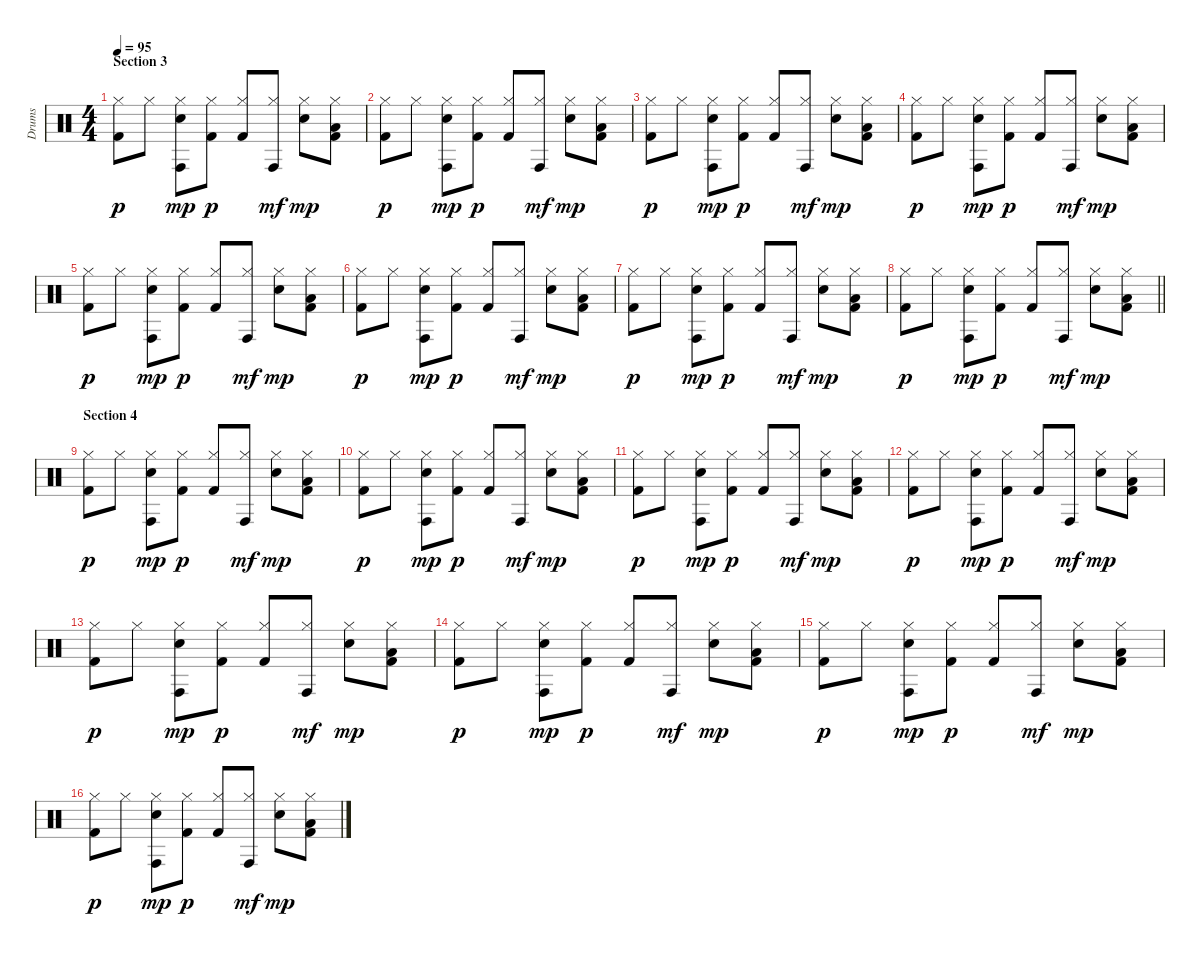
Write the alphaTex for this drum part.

\track ("Drums" "Drums") {instrument percussion}
\staff {score}
\articulation defaults
\ts (4 4)
\section ("" "Section 3")
\tempo 95
\clef neutral
\ks c
("Hi-Hat (closed)" "Kick (hit) 2").8{dy p} "Hi-Hat (closed)".8 ("Hi-Hat (closed)" "Conga high (hit)" "Electric Snare (hit)").8{dy mp} ("Hi-Hat (closed)" "Kick (hit) 2").8{dy p} ("Hi-Hat (closed)" "Kick (hit) 2").8 ("Hi-Hat (closed)" "Conga high (hit)").8{dy mf} ("Hi-Hat (closed)" "Electric Snare (hit)").8{dy mp} ("Hi-Hat (closed)" "Low Tom (hit)" "Kick (hit) 2").8 |
("Hi-Hat (closed)" "Kick (hit) 2").8{dy p} "Hi-Hat (closed)".8 ("Hi-Hat (closed)" "Conga high (hit)" "Electric Snare (hit)").8{dy mp} ("Hi-Hat (closed)" "Kick (hit) 2").8{dy p} ("Hi-Hat (closed)" "Kick (hit) 2").8 ("Hi-Hat (closed)" "Conga high (hit)").8{dy mf} ("Hi-Hat (closed)" "Electric Snare (hit)").8{dy mp} ("Hi-Hat (closed)" "Low Tom (hit)" "Kick (hit) 2").8 |
("Hi-Hat (closed)" "Kick (hit) 2").8{dy p} "Hi-Hat (closed)".8 ("Hi-Hat (closed)" "Conga high (hit)" "Electric Snare (hit)").8{dy mp} ("Hi-Hat (closed)" "Kick (hit) 2").8{dy p} ("Hi-Hat (closed)" "Kick (hit) 2").8 ("Hi-Hat (closed)" "Conga high (hit)").8{dy mf} ("Hi-Hat (closed)" "Electric Snare (hit)").8{dy mp} ("Hi-Hat (closed)" "Low Tom (hit)" "Kick (hit) 2").8 |
("Hi-Hat (closed)" "Kick (hit) 2").8{dy p} "Hi-Hat (closed)".8 ("Hi-Hat (closed)" "Conga high (hit)" "Electric Snare (hit)").8{dy mp} ("Hi-Hat (closed)" "Kick (hit) 2").8{dy p} ("Hi-Hat (closed)" "Kick (hit) 2").8 ("Hi-Hat (closed)" "Conga high (hit)").8{dy mf} ("Hi-Hat (closed)" "Electric Snare (hit)").8{dy mp} ("Hi-Hat (closed)" "Low Tom (hit)" "Kick (hit) 2").8 |
("Hi-Hat (closed)" "Kick (hit) 2").8{dy p} "Hi-Hat (closed)".8 ("Hi-Hat (closed)" "Conga high (hit)" "Electric Snare (hit)").8{dy mp} ("Hi-Hat (closed)" "Kick (hit) 2").8{dy p} ("Hi-Hat (closed)" "Kick (hit) 2").8 ("Hi-Hat (closed)" "Conga high (hit)").8{dy mf} ("Hi-Hat (closed)" "Electric Snare (hit)").8{dy mp} ("Hi-Hat (closed)" "Low Tom (hit)" "Kick (hit) 2").8 |
("Hi-Hat (closed)" "Kick (hit) 2").8{dy p} "Hi-Hat (closed)".8 ("Hi-Hat (closed)" "Conga high (hit)" "Electric Snare (hit)").8{dy mp} ("Hi-Hat (closed)" "Kick (hit) 2").8{dy p} ("Hi-Hat (closed)" "Kick (hit) 2").8 ("Hi-Hat (closed)" "Conga high (hit)").8{dy mf} ("Hi-Hat (closed)" "Electric Snare (hit)").8{dy mp} ("Hi-Hat (closed)" "Low Tom (hit)" "Kick (hit) 2").8 |
("Hi-Hat (closed)" "Kick (hit) 2").8{dy p} "Hi-Hat (closed)".8 ("Hi-Hat (closed)" "Conga high (hit)" "Electric Snare (hit)").8{dy mp} ("Hi-Hat (closed)" "Kick (hit) 2").8{dy p} ("Hi-Hat (closed)" "Kick (hit) 2").8 ("Hi-Hat (closed)" "Conga high (hit)").8{dy mf} ("Hi-Hat (closed)" "Electric Snare (hit)").8{dy mp} ("Hi-Hat (closed)" "Low Tom (hit)" "Kick (hit) 2").8 |
\barLineRight lightlight
("Hi-Hat (closed)" "Kick (hit) 2").8{dy p} "Hi-Hat (closed)".8 ("Hi-Hat (closed)" "Conga high (hit)" "Electric Snare (hit)").8{dy mp} ("Hi-Hat (closed)" "Kick (hit) 2").8{dy p} ("Hi-Hat (closed)" "Kick (hit) 2").8 ("Hi-Hat (closed)" "Conga high (hit)").8{dy mf} ("Hi-Hat (closed)" "Electric Snare (hit)").8{dy mp} ("Hi-Hat (closed)" "Low Tom (hit)" "Kick (hit) 2").8 |
\section ("" "Section 4")
("Hi-Hat (closed)" "Kick (hit) 2").8{dy p} "Hi-Hat (closed)".8 ("Hi-Hat (closed)" "Conga high (hit)" "Electric Snare (hit)").8{dy mp} ("Hi-Hat (closed)" "Kick (hit) 2").8{dy p} ("Hi-Hat (closed)" "Kick (hit) 2").8 ("Hi-Hat (closed)" "Conga high (hit)").8{dy mf} ("Hi-Hat (closed)" "Electric Snare (hit)").8{dy mp} ("Hi-Hat (closed)" "Low Tom (hit)" "Kick (hit) 2").8 |
("Hi-Hat (closed)" "Kick (hit) 2").8{dy p} "Hi-Hat (closed)".8 ("Hi-Hat (closed)" "Conga high (hit)" "Electric Snare (hit)").8{dy mp} ("Hi-Hat (closed)" "Kick (hit) 2").8{dy p} ("Hi-Hat (closed)" "Kick (hit) 2").8 ("Hi-Hat (closed)" "Conga high (hit)").8{dy mf} ("Hi-Hat (closed)" "Electric Snare (hit)").8{dy mp} ("Hi-Hat (closed)" "Low Tom (hit)" "Kick (hit) 2").8 |
("Hi-Hat (closed)" "Kick (hit) 2").8{dy p} "Hi-Hat (closed)".8 ("Hi-Hat (closed)" "Conga high (hit)" "Electric Snare (hit)").8{dy mp} ("Hi-Hat (closed)" "Kick (hit) 2").8{dy p} ("Hi-Hat (closed)" "Kick (hit) 2").8 ("Hi-Hat (closed)" "Conga high (hit)").8{dy mf} ("Hi-Hat (closed)" "Electric Snare (hit)").8{dy mp} ("Hi-Hat (closed)" "Low Tom (hit)" "Kick (hit) 2").8 |
("Hi-Hat (closed)" "Kick (hit) 2").8{dy p} "Hi-Hat (closed)".8 ("Hi-Hat (closed)" "Conga high (hit)" "Electric Snare (hit)").8{dy mp} ("Hi-Hat (closed)" "Kick (hit) 2").8{dy p} ("Hi-Hat (closed)" "Kick (hit) 2").8 ("Hi-Hat (closed)" "Conga high (hit)").8{dy mf} ("Hi-Hat (closed)" "Electric Snare (hit)").8{dy mp} ("Hi-Hat (closed)" "Low Tom (hit)" "Kick (hit) 2").8 |
("Hi-Hat (closed)" "Kick (hit) 2").8{dy p} "Hi-Hat (closed)".8 ("Hi-Hat (closed)" "Conga high (hit)" "Electric Snare (hit)").8{dy mp} ("Hi-Hat (closed)" "Kick (hit) 2").8{dy p} ("Hi-Hat (closed)" "Kick (hit) 2").8 ("Hi-Hat (closed)" "Conga high (hit)").8{dy mf} ("Hi-Hat (closed)" "Electric Snare (hit)").8{dy mp} ("Hi-Hat (closed)" "Low Tom (hit)" "Kick (hit) 2").8 |
("Hi-Hat (closed)" "Kick (hit) 2").8{dy p} "Hi-Hat (closed)".8 ("Hi-Hat (closed)" "Conga high (hit)" "Electric Snare (hit)").8{dy mp} ("Hi-Hat (closed)" "Kick (hit) 2").8{dy p} ("Hi-Hat (closed)" "Kick (hit) 2").8 ("Hi-Hat (closed)" "Conga high (hit)").8{dy mf} ("Hi-Hat (closed)" "Electric Snare (hit)").8{dy mp} ("Hi-Hat (closed)" "Low Tom (hit)" "Kick (hit) 2").8 |
("Hi-Hat (closed)" "Kick (hit) 2").8{dy p} "Hi-Hat (closed)".8 ("Hi-Hat (closed)" "Conga high (hit)" "Electric Snare (hit)").8{dy mp} ("Hi-Hat (closed)" "Kick (hit) 2").8{dy p} ("Hi-Hat (closed)" "Kick (hit) 2").8 ("Hi-Hat (closed)" "Conga high (hit)").8{dy mf} ("Hi-Hat (closed)" "Electric Snare (hit)").8{dy mp} ("Hi-Hat (closed)" "Low Tom (hit)" "Kick (hit) 2").8 |
("Hi-Hat (closed)" "Kick (hit) 2").8{dy p} "Hi-Hat (closed)".8 ("Hi-Hat (closed)" "Conga high (hit)" "Electric Snare (hit)").8{dy mp} ("Hi-Hat (closed)" "Kick (hit) 2").8{dy p} ("Hi-Hat (closed)" "Kick (hit) 2").8 ("Hi-Hat (closed)" "Conga high (hit)").8{dy mf} ("Hi-Hat (closed)" "Electric Snare (hit)").8{dy mp} ("Hi-Hat (closed)" "Low Tom (hit)" "Kick (hit) 2").8
